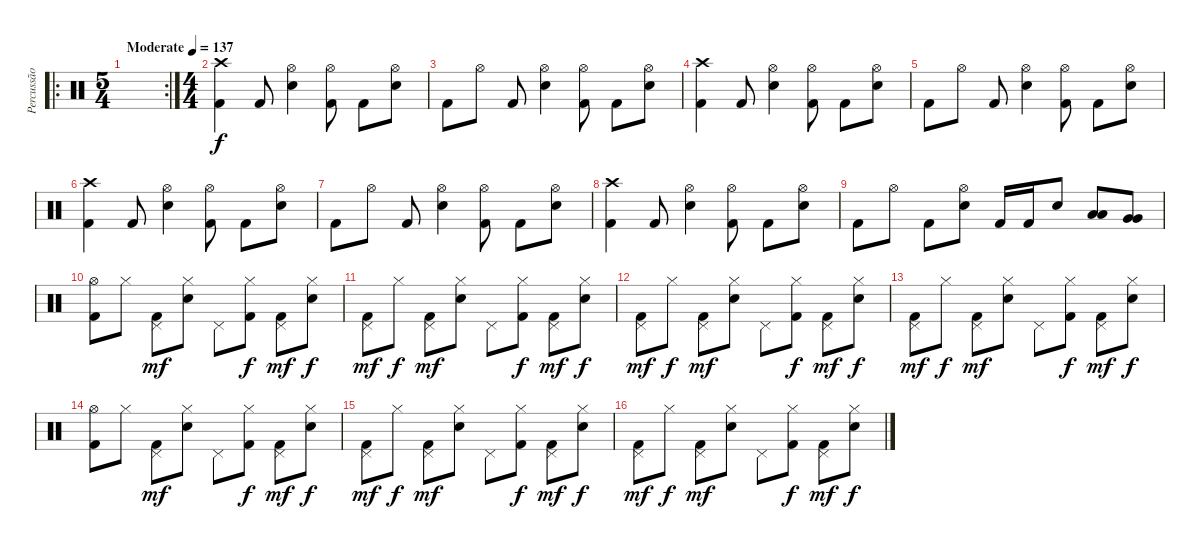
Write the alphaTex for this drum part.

\track ("Percussão" "Percussão") {instrument percussion}
\staff {score}
\articulation defaults
\ro
\rc 2
\ts (5 4)
\tempo (137 "Moderate")
\clef neutral
\ks c
|
\ts (4 4)
("Crash high (hit)" "Kick (hit) 2").4 "Kick (hit) 2".8 ("Hi-Hat (open)" "Electric Snare (hit)").4 ("Hi-Hat (open)" "Kick (hit) 2").8 "Kick (hit) 2".8 ("Hi-Hat (open)" "Electric Snare (hit)").8 |
"Kick (hit) 2".8 "Hi-Hat (open)".8 "Kick (hit) 2".8 ("Hi-Hat (open)" "Electric Snare (hit)").4 ("Hi-Hat (open)" "Kick (hit) 2").8 "Kick (hit) 2".8 ("Hi-Hat (open)" "Electric Snare (hit)").8 |
("Crash high (hit)" "Kick (hit) 2").4 "Kick (hit) 2".8 ("Hi-Hat (open)" "Electric Snare (hit)").4 ("Hi-Hat (open)" "Kick (hit) 2").8 "Kick (hit) 2".8 ("Hi-Hat (open)" "Electric Snare (hit)").8 |
"Kick (hit) 2".8 "Hi-Hat (open)".8 "Kick (hit) 2".8 ("Hi-Hat (open)" "Electric Snare (hit)").4 ("Hi-Hat (open)" "Kick (hit) 2").8 "Kick (hit) 2".8 ("Hi-Hat (open)" "Electric Snare (hit)").8 |
("Crash high (hit)" "Kick (hit) 2").4 "Kick (hit) 2".8 ("Hi-Hat (open)" "Electric Snare (hit)").4 ("Hi-Hat (open)" "Kick (hit) 2").8 "Kick (hit) 2".8 ("Hi-Hat (open)" "Electric Snare (hit)").8 |
"Kick (hit) 2".8 "Hi-Hat (open)".8 "Kick (hit) 2".8 ("Hi-Hat (open)" "Electric Snare (hit)").4 ("Hi-Hat (open)" "Kick (hit) 2").8 "Kick (hit) 2".8 ("Hi-Hat (open)" "Electric Snare (hit)").8 |
("Crash high (hit)" "Kick (hit) 2").4 "Kick (hit) 2".8 ("Hi-Hat (open)" "Electric Snare (hit)").4 ("Hi-Hat (open)" "Kick (hit) 2").8 "Kick (hit) 2".8 ("Hi-Hat (open)" "Electric Snare (hit)").8 |
"Kick (hit) 2".8 "Hi-Hat (open)".8 "Kick (hit) 2".8 ("Hi-Hat (open)" "Electric Snare (hit)").8 "Kick (hit) 2".16 "Kick (hit) 2".16 "Electric Snare (hit)".8 ("Low Tom (hit)" "Low Tom (hit)").8 ("Very Low Tom (hit)" "Very Low Tom (hit)").8 |
("Hi-Hat (open)" "Kick (hit) 2").8 "Hi-Hat (closed)".8 ("Pedal Hi-Hat (hit)" "Kick (hit) 2").8{dy mf} ("Hi-Hat (closed)" "Electric Snare (hit)").8 "Pedal Hi-Hat (hit)".8 ("Hi-Hat (closed)" "Kick (hit) 2").8{dy f} ("Pedal Hi-Hat (hit)" "Kick (hit) 2").8{dy mf} ("Hi-Hat (closed)" "Electric Snare (hit)").8{dy f} |
("Pedal Hi-Hat (hit)" "Kick (hit) 2").8{dy mf} "Hi-Hat (closed)".8{dy f} ("Pedal Hi-Hat (hit)" "Kick (hit) 2").8{dy mf} ("Hi-Hat (closed)" "Electric Snare (hit)").8 "Pedal Hi-Hat (hit)".8 ("Hi-Hat (closed)" "Kick (hit) 2").8{dy f} ("Pedal Hi-Hat (hit)" "Kick (hit) 2").8{dy mf} ("Hi-Hat (closed)" "Electric Snare (hit)").8{dy f} |
("Pedal Hi-Hat (hit)" "Kick (hit) 2").8{dy mf} "Hi-Hat (closed)".8{dy f} ("Pedal Hi-Hat (hit)" "Kick (hit) 2").8{dy mf} ("Hi-Hat (closed)" "Electric Snare (hit)").8 "Pedal Hi-Hat (hit)".8 ("Hi-Hat (closed)" "Kick (hit) 2").8{dy f} ("Pedal Hi-Hat (hit)" "Kick (hit) 2").8{dy mf} ("Hi-Hat (closed)" "Electric Snare (hit)").8{dy f} |
("Pedal Hi-Hat (hit)" "Kick (hit) 2").8{dy mf} "Hi-Hat (closed)".8{dy f} ("Pedal Hi-Hat (hit)" "Kick (hit) 2").8{dy mf} ("Hi-Hat (closed)" "Electric Snare (hit)").8 "Pedal Hi-Hat (hit)".8 ("Hi-Hat (closed)" "Kick (hit) 2").8{dy f} ("Pedal Hi-Hat (hit)" "Kick (hit) 2").8{dy mf} ("Hi-Hat (closed)" "Electric Snare (hit)").8{dy f} |
("Hi-Hat (open)" "Kick (hit) 2").8 "Hi-Hat (closed)".8 ("Pedal Hi-Hat (hit)" "Kick (hit) 2").8{dy mf} ("Hi-Hat (closed)" "Electric Snare (hit)").8 "Pedal Hi-Hat (hit)".8 ("Hi-Hat (closed)" "Kick (hit) 2").8{dy f} ("Pedal Hi-Hat (hit)" "Kick (hit) 2").8{dy mf} ("Hi-Hat (closed)" "Electric Snare (hit)").8{dy f} |
("Pedal Hi-Hat (hit)" "Kick (hit) 2").8{dy mf} "Hi-Hat (closed)".8{dy f} ("Pedal Hi-Hat (hit)" "Kick (hit) 2").8{dy mf} ("Hi-Hat (closed)" "Electric Snare (hit)").8 "Pedal Hi-Hat (hit)".8 ("Hi-Hat (closed)" "Kick (hit) 2").8{dy f} ("Pedal Hi-Hat (hit)" "Kick (hit) 2").8{dy mf} ("Hi-Hat (closed)" "Electric Snare (hit)").8{dy f} |
("Pedal Hi-Hat (hit)" "Kick (hit) 2").8{dy mf} "Hi-Hat (closed)".8{dy f} ("Pedal Hi-Hat (hit)" "Kick (hit) 2").8{dy mf} ("Hi-Hat (closed)" "Electric Snare (hit)").8 "Pedal Hi-Hat (hit)".8 ("Hi-Hat (closed)" "Kick (hit) 2").8{dy f} ("Pedal Hi-Hat (hit)" "Kick (hit) 2").8{dy mf} ("Hi-Hat (closed)" "Electric Snare (hit)").8{dy f}
